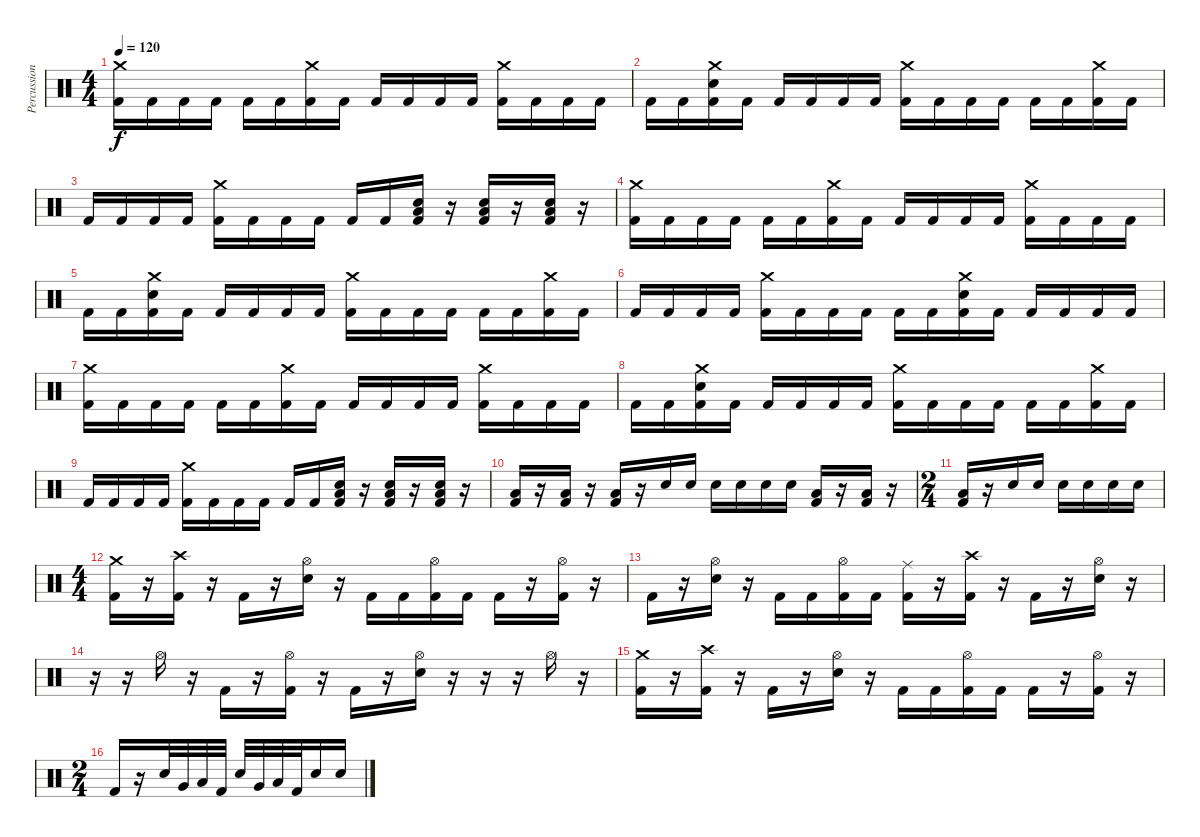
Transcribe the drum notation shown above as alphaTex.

\track ("Percussion" "Percussion") {instrument percussion}
\staff {score}
\articulation defaults
\ts (4 4)
\tempo 120
\clef neutral
\ks c
("Crash medium (hit)" "Kick (hit) 2").16{dy f} "Kick (hit) 2".16 "Kick (hit) 2".16 "Kick (hit) 2".16 "Kick (hit) 2".16 "Kick (hit) 2".16 ("Crash medium (hit)" "Kick (hit) 2").16 "Kick (hit) 2".16 "Kick (hit) 2".16 "Kick (hit) 2".16 "Kick (hit) 2".16 "Kick (hit) 2".16 ("Crash medium (hit)" "Kick (hit) 2").16 "Kick (hit) 2".16 "Kick (hit) 2".16 "Kick (hit) 2".16 |
"Kick (hit) 2".16 "Kick (hit) 2".16 ("Crash medium (hit)" "Electric Snare (hit)" "Kick (hit) 2").16 "Kick (hit) 2".16 "Kick (hit) 2".16 "Kick (hit) 2".16 "Kick (hit) 2".16 "Kick (hit) 2".16 ("Crash medium (hit)" "Kick (hit) 2").16 "Kick (hit) 2".16 "Kick (hit) 2".16 "Kick (hit) 2".16 "Kick (hit) 2".16 "Kick (hit) 2".16 ("Crash medium (hit)" "Kick (hit) 2").16 "Kick (hit) 2".16 |
"Kick (hit) 2".16 "Kick (hit) 2".16 "Kick (hit) 2".16 "Kick (hit) 2".16 ("Crash medium (hit)" "Kick (hit) 2").16 "Kick (hit) 2".16 "Kick (hit) 2".16 "Kick (hit) 2".16 "Kick (hit) 2".16 "Kick (hit) 2".16 ("Electric Snare (hit)" "Low Floor Tom (hit)" "Kick (hit) 2").16 r.16 ("Electric Snare (hit)" "Low Floor Tom (hit)" "Kick (hit) 2").16 r.16 ("Electric Snare (hit)" "Low Floor Tom (hit)" "Kick (hit) 2").16 r.16 |
("Crash medium (hit)" "Kick (hit) 2").16 "Kick (hit) 2".16 "Kick (hit) 2".16 "Kick (hit) 2".16 "Kick (hit) 2".16 "Kick (hit) 2".16 ("Crash medium (hit)" "Kick (hit) 2").16 "Kick (hit) 2".16 "Kick (hit) 2".16 "Kick (hit) 2".16 "Kick (hit) 2".16 "Kick (hit) 2".16 ("Crash medium (hit)" "Kick (hit) 2").16 "Kick (hit) 2".16 "Kick (hit) 2".16 "Kick (hit) 2".16 |
"Kick (hit) 2".16 "Kick (hit) 2".16 ("Crash medium (hit)" "Electric Snare (hit)" "Kick (hit) 2").16 "Kick (hit) 2".16 "Kick (hit) 2".16 "Kick (hit) 2".16 "Kick (hit) 2".16 "Kick (hit) 2".16 ("Crash medium (hit)" "Kick (hit) 2").16 "Kick (hit) 2".16 "Kick (hit) 2".16 "Kick (hit) 2".16 "Kick (hit) 2".16 "Kick (hit) 2".16 ("Crash medium (hit)" "Kick (hit) 2").16 "Kick (hit) 2".16 |
"Kick (hit) 2".16 "Kick (hit) 2".16 "Kick (hit) 2".16 "Kick (hit) 2".16 ("Crash medium (hit)" "Kick (hit) 2").16 "Kick (hit) 2".16 "Kick (hit) 2".16 "Kick (hit) 2".16 "Kick (hit) 2".16 "Kick (hit) 2".16 ("Crash medium (hit)" "Electric Snare (hit)" "Kick (hit) 2").16 "Kick (hit) 2".16 "Kick (hit) 2".16 "Kick (hit) 2".16 "Kick (hit) 2".16 "Kick (hit) 2".16 |
("Crash medium (hit)" "Kick (hit) 2").16 "Kick (hit) 2".16 "Kick (hit) 2".16 "Kick (hit) 2".16 "Kick (hit) 2".16 "Kick (hit) 2".16 ("Crash medium (hit)" "Kick (hit) 2").16 "Kick (hit) 2".16 "Kick (hit) 2".16 "Kick (hit) 2".16 "Kick (hit) 2".16 "Kick (hit) 2".16 ("Crash medium (hit)" "Kick (hit) 2").16 "Kick (hit) 2".16 "Kick (hit) 2".16 "Kick (hit) 2".16 |
"Kick (hit) 2".16 "Kick (hit) 2".16 ("Crash medium (hit)" "Electric Snare (hit)" "Kick (hit) 2").16 "Kick (hit) 2".16 "Kick (hit) 2".16 "Kick (hit) 2".16 "Kick (hit) 2".16 "Kick (hit) 2".16 ("Crash medium (hit)" "Kick (hit) 2").16 "Kick (hit) 2".16 "Kick (hit) 2".16 "Kick (hit) 2".16 "Kick (hit) 2".16 "Kick (hit) 2".16 ("Crash medium (hit)" "Kick (hit) 2").16 "Kick (hit) 2".16 |
"Kick (hit) 2".16 "Kick (hit) 2".16 "Kick (hit) 2".16 "Kick (hit) 2".16 ("Crash medium (hit)" "Kick (hit) 2").16 "Kick (hit) 2".16 "Kick (hit) 2".16 "Kick (hit) 2".16 "Kick (hit) 2".16 "Kick (hit) 2".16 ("Electric Snare (hit)" "Low Floor Tom (hit)" "Kick (hit) 2").16 r.16 ("Electric Snare (hit)" "Low Floor Tom (hit)" "Kick (hit) 2").16 r.16 ("Electric Snare (hit)" "Low Floor Tom (hit)" "Kick (hit) 2").16 r.16 |
("Low Floor Tom (hit)" "Kick (hit) 2").16 r.16 ("Low Floor Tom (hit)" "Kick (hit) 2").16 r.16 ("Low Floor Tom (hit)" "Kick (hit) 2").16 r.16 "Electric Snare (hit)".16 "Electric Snare (hit)".16 "Electric Snare (hit)".16 "Electric Snare (hit)".16 "Electric Snare (hit)".16 "Electric Snare (hit)".16 ("Low Floor Tom (hit)" "Kick (hit) 2").16 r.16 ("Low Floor Tom (hit)" "Kick (hit) 2").16 r.16 |
\ts (2 4)
("Low Floor Tom (hit)" "Kick (hit) 2").16 r.16 "Electric Snare (hit)".16 "Electric Snare (hit)".16 "Electric Snare (hit)".16 "Electric Snare (hit)".16 "Electric Snare (hit)".16 "Electric Snare (hit)".16 |
\ts (4 4)
("Crash medium (hit)" "Kick (hit) 2").16 r.16 ("Crash high (hit)" "Kick (hit) 2").16 r.16 "Kick (hit) 2".16 r.16 ("Hi-Hat (open)" "Electric Snare (hit)").16 r.16 "Kick (hit) 2".16 "Kick (hit) 2".16 ("Hi-Hat (open)" "Kick (hit) 2").16 "Kick (hit) 2".16 "Kick (hit) 2".16 r.16 ("Hi-Hat (open)" "Kick (hit) 2").16 r.16 |
"Kick (hit) 2".16 r.16 ("Hi-Hat (open)" "Electric Snare (hit)").16 r.16 "Kick (hit) 2".16 "Kick (hit) 2".16 ("Hi-Hat (open)" "Kick (hit) 2").16 "Kick (hit) 2".16 ("Ride (middle)" "Kick (hit) 2").16 r.16 ("Crash high (hit)" "Kick (hit) 2").16 r.16 "Kick (hit) 2".16 r.16 ("Hi-Hat (open)" "Electric Snare (hit)").16 r.16 |
r.16 r.16 "Hi-Hat (open)".16 r.16 "Kick (hit) 2".16 r.16 ("Hi-Hat (open)" "Kick (hit) 2").16 r.16 "Kick (hit) 2".16 r.16 ("Hi-Hat (open)" "Electric Snare (hit)").16 r.16 r.16 r.16 "Hi-Hat (open)".16 r.16 |
("Crash medium (hit)" "Kick (hit) 2").16 r.16 ("Crash high (hit)" "Kick (hit) 2").16 r.16 "Kick (hit) 2".16 r.16 ("Hi-Hat (open)" "Electric Snare (hit)").16 r.16 "Kick (hit) 2".16 "Kick (hit) 2".16 ("Hi-Hat (open)" "Kick (hit) 2").16 "Kick (hit) 2".16 "Kick (hit) 2".16 r.16 ("Hi-Hat (open)" "Kick (hit) 2").16 r.16 |
\ts (2 4)
"Kick (hit) 2".16 r.16 "Electric Snare (hit)".32 "Very Low Tom (hit)".32 "Low Floor Tom (hit)".32 "Kick (hit) 2".32 "Electric Snare (hit)".32 "Very Low Tom (hit)".32 "Low Floor Tom (hit)".32 "Kick (hit) 2".32 "Electric Snare (hit)".16 "Electric Snare (hit)".16
